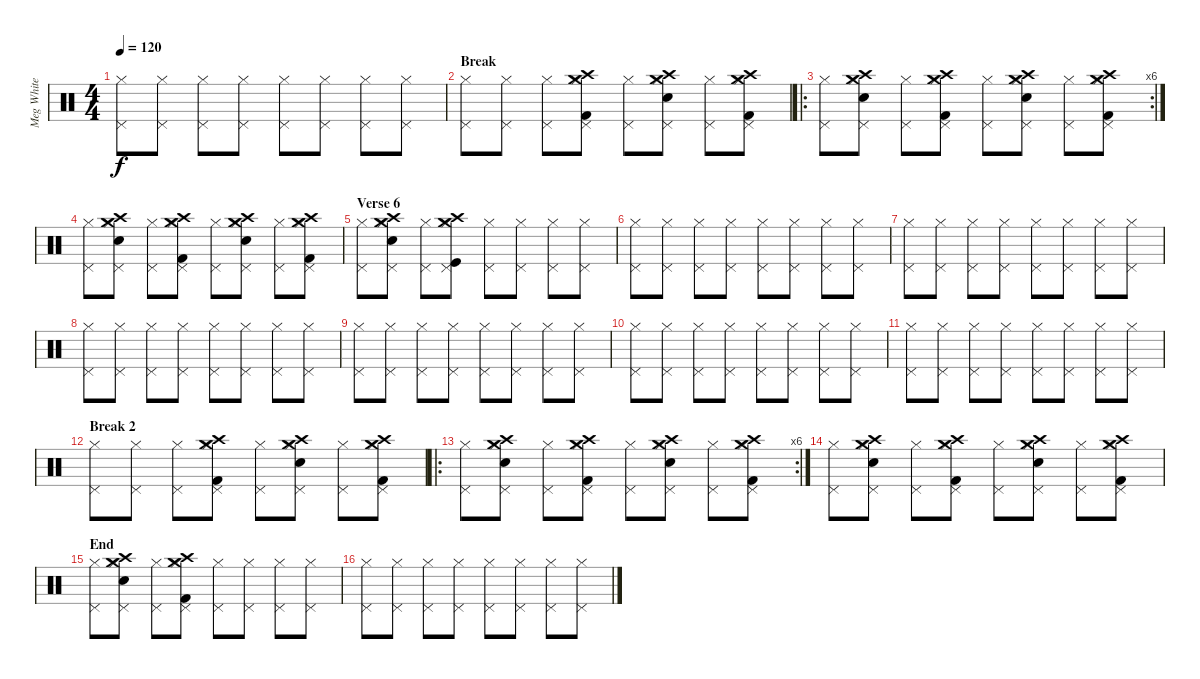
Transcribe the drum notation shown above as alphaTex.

\track ("Meg White" "Meg White") {instrument percussion}
\staff {score}
\articulation defaults
\ts (4 4)
\tempo 120
\clef neutral
\ks c
("Hi-Hat (closed)" "Pedal Hi-Hat (hit)").8{dy f} ("Hi-Hat (closed)" "Pedal Hi-Hat (hit)").8 ("Hi-Hat (closed)" "Pedal Hi-Hat (hit)").8 ("Hi-Hat (closed)" "Pedal Hi-Hat (hit)").8 ("Hi-Hat (closed)" "Pedal Hi-Hat (hit)").8 ("Hi-Hat (closed)" "Pedal Hi-Hat (hit)").8 ("Pedal Hi-Hat (hit)" "Hi-Hat (closed)").8 ("Pedal Hi-Hat (hit)" "Hi-Hat (closed)").8 |
\section ("" "Break")
("Hi-Hat (closed)" "Pedal Hi-Hat (hit)").8 ("Hi-Hat (closed)" "Pedal Hi-Hat (hit)").8 ("Hi-Hat (closed)" "Pedal Hi-Hat (hit)").8 ("Hi-Hat (closed)" "Pedal Hi-Hat (hit)" "Kick (hit) 2" "Crash high (hit)" "Crash medium (hit)").8 ("Hi-Hat (closed)" "Pedal Hi-Hat (hit)").8 ("Hi-Hat (closed)" "Pedal Hi-Hat (hit)" "Electric Snare (hit)" "Crash high (hit)" "Crash medium (hit)").8 ("Pedal Hi-Hat (hit)" "Hi-Hat (closed)").8 ("Pedal Hi-Hat (hit)" "Hi-Hat (closed)" "Kick (hit) 2" "Crash high (hit)" "Crash medium (hit)").8 |
\ro
\rc 6
("Hi-Hat (closed)" "Pedal Hi-Hat (hit)").8 ("Hi-Hat (closed)" "Pedal Hi-Hat (hit)" "Electric Snare (hit)" "Crash high (hit)" "Crash medium (hit)").8 ("Hi-Hat (closed)" "Pedal Hi-Hat (hit)").8 ("Hi-Hat (closed)" "Pedal Hi-Hat (hit)" "Kick (hit) 2" "Crash high (hit)" "Crash medium (hit)").8 ("Hi-Hat (closed)" "Pedal Hi-Hat (hit)").8 ("Hi-Hat (closed)" "Pedal Hi-Hat (hit)" "Electric Snare (hit)" "Crash high (hit)" "Crash medium (hit)").8 ("Pedal Hi-Hat (hit)" "Hi-Hat (closed)").8 ("Pedal Hi-Hat (hit)" "Hi-Hat (closed)" "Kick (hit) 2" "Crash high (hit)" "Crash medium (hit)").8 |
("Hi-Hat (closed)" "Pedal Hi-Hat (hit)").8 ("Hi-Hat (closed)" "Pedal Hi-Hat (hit)" "Electric Snare (hit)" "Crash high (hit)" "Crash medium (hit)").8 ("Hi-Hat (closed)" "Pedal Hi-Hat (hit)").8 ("Hi-Hat (closed)" "Pedal Hi-Hat (hit)" "Kick (hit) 2" "Crash high (hit)" "Crash medium (hit)").8 ("Hi-Hat (closed)" "Pedal Hi-Hat (hit)").8 ("Hi-Hat (closed)" "Pedal Hi-Hat (hit)" "Electric Snare (hit)" "Crash high (hit)" "Crash medium (hit)").8 ("Pedal Hi-Hat (hit)" "Hi-Hat (closed)").8 ("Pedal Hi-Hat (hit)" "Hi-Hat (closed)" "Kick (hit) 2" "Crash high (hit)" "Crash medium (hit)").8 |
\section ("" "Verse 6")
("Hi-Hat (closed)" "Pedal Hi-Hat (hit)").8 ("Hi-Hat (closed)" "Pedal Hi-Hat (hit)" "Electric Snare (hit)" "Crash high (hit)" "Crash medium (hit)").8 ("Hi-Hat (closed)" "Pedal Hi-Hat (hit)").8 ("Hi-Hat (closed)" "Pedal Hi-Hat (hit)" "Kick (hit)" "Crash high (hit)" "Crash medium (hit)").8 ("Hi-Hat (closed)" "Pedal Hi-Hat (hit)").8 ("Hi-Hat (closed)" "Pedal Hi-Hat (hit)").8 ("Pedal Hi-Hat (hit)" "Hi-Hat (closed)").8 ("Pedal Hi-Hat (hit)" "Hi-Hat (closed)").8 |
("Hi-Hat (closed)" "Pedal Hi-Hat (hit)").8 ("Hi-Hat (closed)" "Pedal Hi-Hat (hit)").8 ("Hi-Hat (closed)" "Pedal Hi-Hat (hit)").8 ("Hi-Hat (closed)" "Pedal Hi-Hat (hit)").8 ("Hi-Hat (closed)" "Pedal Hi-Hat (hit)").8 ("Hi-Hat (closed)" "Pedal Hi-Hat (hit)").8 ("Pedal Hi-Hat (hit)" "Hi-Hat (closed)").8 ("Pedal Hi-Hat (hit)" "Hi-Hat (closed)").8 |
("Hi-Hat (closed)" "Pedal Hi-Hat (hit)").8 ("Hi-Hat (closed)" "Pedal Hi-Hat (hit)").8 ("Hi-Hat (closed)" "Pedal Hi-Hat (hit)").8 ("Hi-Hat (closed)" "Pedal Hi-Hat (hit)").8 ("Hi-Hat (closed)" "Pedal Hi-Hat (hit)").8 ("Hi-Hat (closed)" "Pedal Hi-Hat (hit)").8 ("Pedal Hi-Hat (hit)" "Hi-Hat (closed)").8 ("Pedal Hi-Hat (hit)" "Hi-Hat (closed)").8 |
("Hi-Hat (closed)" "Pedal Hi-Hat (hit)").8 ("Hi-Hat (closed)" "Pedal Hi-Hat (hit)").8 ("Hi-Hat (closed)" "Pedal Hi-Hat (hit)").8 ("Hi-Hat (closed)" "Pedal Hi-Hat (hit)").8 ("Hi-Hat (closed)" "Pedal Hi-Hat (hit)").8 ("Hi-Hat (closed)" "Pedal Hi-Hat (hit)").8 ("Pedal Hi-Hat (hit)" "Hi-Hat (closed)").8 ("Pedal Hi-Hat (hit)" "Hi-Hat (closed)").8 |
("Hi-Hat (closed)" "Pedal Hi-Hat (hit)").8 ("Hi-Hat (closed)" "Pedal Hi-Hat (hit)").8 ("Hi-Hat (closed)" "Pedal Hi-Hat (hit)").8 ("Hi-Hat (closed)" "Pedal Hi-Hat (hit)").8 ("Hi-Hat (closed)" "Pedal Hi-Hat (hit)").8 ("Hi-Hat (closed)" "Pedal Hi-Hat (hit)").8 ("Pedal Hi-Hat (hit)" "Hi-Hat (closed)").8 ("Pedal Hi-Hat (hit)" "Hi-Hat (closed)").8 |
("Hi-Hat (closed)" "Pedal Hi-Hat (hit)").8 ("Hi-Hat (closed)" "Pedal Hi-Hat (hit)").8 ("Hi-Hat (closed)" "Pedal Hi-Hat (hit)").8 ("Hi-Hat (closed)" "Pedal Hi-Hat (hit)").8 ("Hi-Hat (closed)" "Pedal Hi-Hat (hit)").8 ("Hi-Hat (closed)" "Pedal Hi-Hat (hit)").8 ("Pedal Hi-Hat (hit)" "Hi-Hat (closed)").8 ("Pedal Hi-Hat (hit)" "Hi-Hat (closed)").8 |
("Hi-Hat (closed)" "Pedal Hi-Hat (hit)").8 ("Hi-Hat (closed)" "Pedal Hi-Hat (hit)").8 ("Hi-Hat (closed)" "Pedal Hi-Hat (hit)").8 ("Hi-Hat (closed)" "Pedal Hi-Hat (hit)").8 ("Hi-Hat (closed)" "Pedal Hi-Hat (hit)").8 ("Hi-Hat (closed)" "Pedal Hi-Hat (hit)").8 ("Pedal Hi-Hat (hit)" "Hi-Hat (closed)").8 ("Pedal Hi-Hat (hit)" "Hi-Hat (closed)").8 |
\section ("" "Break 2")
("Hi-Hat (closed)" "Pedal Hi-Hat (hit)").8 ("Hi-Hat (closed)" "Pedal Hi-Hat (hit)").8 ("Hi-Hat (closed)" "Pedal Hi-Hat (hit)").8 ("Hi-Hat (closed)" "Pedal Hi-Hat (hit)" "Kick (hit) 2" "Crash high (hit)" "Crash medium (hit)").8 ("Hi-Hat (closed)" "Pedal Hi-Hat (hit)").8 ("Hi-Hat (closed)" "Pedal Hi-Hat (hit)" "Electric Snare (hit)" "Crash high (hit)" "Crash medium (hit)").8 ("Pedal Hi-Hat (hit)" "Hi-Hat (closed)").8 ("Pedal Hi-Hat (hit)" "Hi-Hat (closed)" "Kick (hit) 2" "Crash high (hit)" "Crash medium (hit)").8 |
\ro
\rc 6
("Hi-Hat (closed)" "Pedal Hi-Hat (hit)").8 ("Hi-Hat (closed)" "Pedal Hi-Hat (hit)" "Electric Snare (hit)" "Crash high (hit)" "Crash medium (hit)").8 ("Hi-Hat (closed)" "Pedal Hi-Hat (hit)").8 ("Hi-Hat (closed)" "Pedal Hi-Hat (hit)" "Kick (hit) 2" "Crash high (hit)" "Crash medium (hit)").8 ("Hi-Hat (closed)" "Pedal Hi-Hat (hit)").8 ("Hi-Hat (closed)" "Pedal Hi-Hat (hit)" "Electric Snare (hit)" "Crash high (hit)" "Crash medium (hit)").8 ("Pedal Hi-Hat (hit)" "Hi-Hat (closed)").8 ("Pedal Hi-Hat (hit)" "Hi-Hat (closed)" "Kick (hit) 2" "Crash high (hit)" "Crash medium (hit)").8 |
("Hi-Hat (closed)" "Pedal Hi-Hat (hit)").8 ("Hi-Hat (closed)" "Pedal Hi-Hat (hit)" "Electric Snare (hit)" "Crash high (hit)" "Crash medium (hit)").8 ("Hi-Hat (closed)" "Pedal Hi-Hat (hit)").8 ("Hi-Hat (closed)" "Pedal Hi-Hat (hit)" "Kick (hit) 2" "Crash high (hit)" "Crash medium (hit)").8 ("Hi-Hat (closed)" "Pedal Hi-Hat (hit)").8 ("Hi-Hat (closed)" "Pedal Hi-Hat (hit)" "Electric Snare (hit)" "Crash high (hit)" "Crash medium (hit)").8 ("Pedal Hi-Hat (hit)" "Hi-Hat (closed)").8 ("Pedal Hi-Hat (hit)" "Hi-Hat (closed)" "Kick (hit) 2" "Crash high (hit)" "Crash medium (hit)").8 |
\section ("" "End")
("Hi-Hat (closed)" "Pedal Hi-Hat (hit)").8 ("Hi-Hat (closed)" "Pedal Hi-Hat (hit)" "Electric Snare (hit)" "Crash high (hit)" "Crash medium (hit)").8 ("Hi-Hat (closed)" "Pedal Hi-Hat (hit)").8 ("Hi-Hat (closed)" "Pedal Hi-Hat (hit)" "Kick (hit) 2" "Crash high (hit)" "Crash medium (hit)").8 ("Hi-Hat (closed)" "Pedal Hi-Hat (hit)").8 ("Hi-Hat (closed)" "Pedal Hi-Hat (hit)").8 ("Pedal Hi-Hat (hit)" "Hi-Hat (closed)").8 ("Pedal Hi-Hat (hit)" "Hi-Hat (closed)").8 |
("Hi-Hat (closed)" "Pedal Hi-Hat (hit)").8 ("Hi-Hat (closed)" "Pedal Hi-Hat (hit)").8 ("Hi-Hat (closed)" "Pedal Hi-Hat (hit)").8 ("Hi-Hat (closed)" "Pedal Hi-Hat (hit)").8 ("Hi-Hat (closed)" "Pedal Hi-Hat (hit)").8 ("Hi-Hat (closed)" "Pedal Hi-Hat (hit)").8 ("Pedal Hi-Hat (hit)" "Hi-Hat (closed)").8 ("Pedal Hi-Hat (hit)" "Hi-Hat (closed)").8
